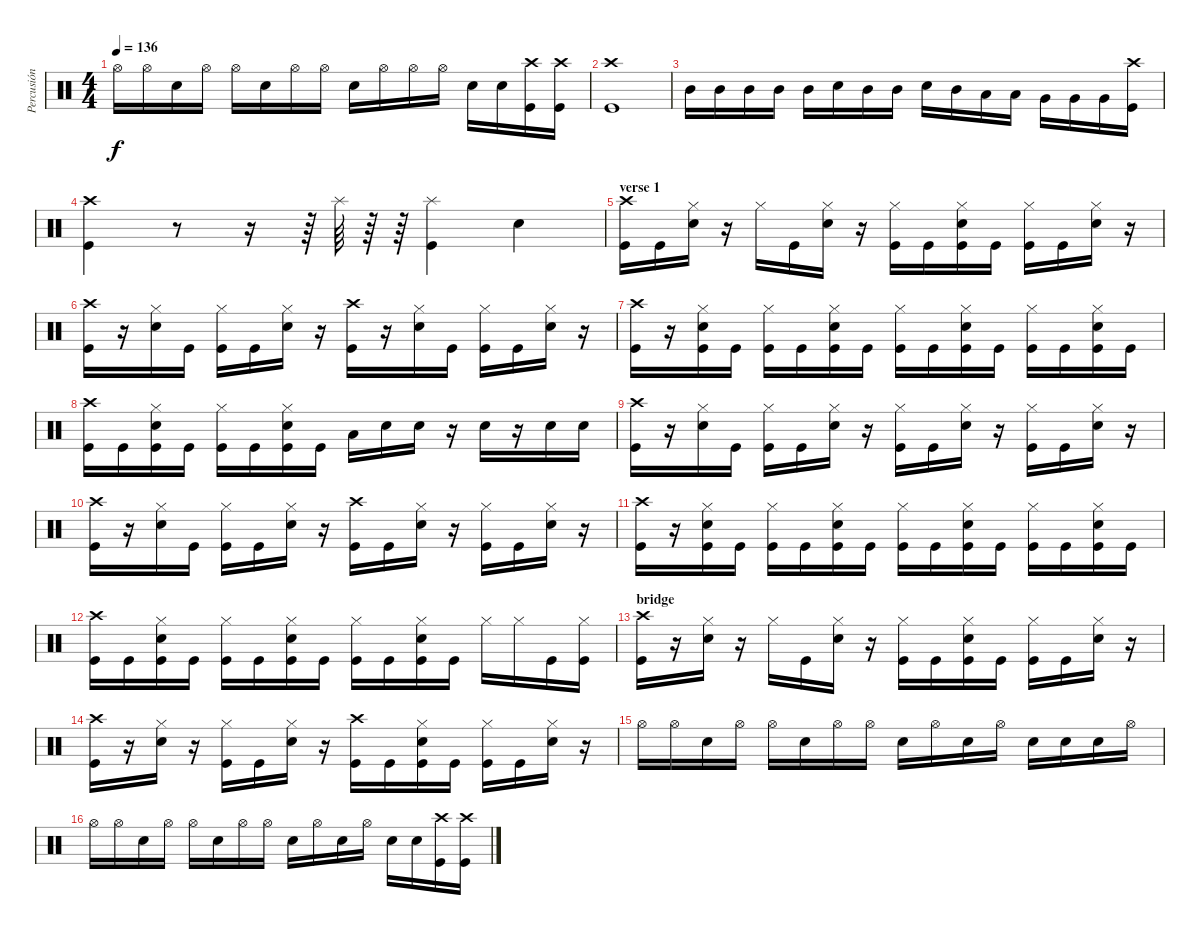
\track ("Percusión" "Percusión") {instrument percussion}
\staff {score}
\articulation defaults
\ts (4 4)
\tempo 136
\clef neutral
\ks c "Hi-Hat (open)".16{dy f} "Hi-Hat (open)".16 "Snare (hit) 2".16 "Hi-Hat (open)".16 "Hi-Hat (open)".16 "Snare (hit) 2".16 "Hi-Hat (open)".16 "Hi-Hat (open)".16 "Snare (hit) 2".16 "Hi-Hat (open)".16 "Hi-Hat (open)".16 "Hi-Hat (open)".16 "Snare (hit) 2".16 "Snare (hit) 2".16
("Crash high (hit)" "Kick (hit)").16 ("Crash high (hit)" "Kick (hit)").16 |
("Crash high (hit)" "Kick (hit)").1 |
"Mid Tom (hit)".16 "Mid Tom (hit)".16 "Mid Tom (hit)".16 "Mid Tom (hit)".16 "Mid Tom (hit)".16 "Snare (hit) 2".16 "Mid Tom (hit)".16 "Mid Tom (hit)".16 "Snare (hit) 2".16 "Mid Tom (hit)".16 "Low Tom (hit)".16 "Low Tom (hit)".16 "Very Low Tom (hit)".16 "Very Low Tom (hit)".16 "Very Low Tom (hit)".16 ("Crash high (hit)" "Kick (hit)").16 |
("Crash high (hit)" "Kick (hit)").4 r.8 r.16 r.64 "Splash (hit)".64 r.64 r.64 ("Splash (hit)" "Kick (hit)").4 "Snare (hit) 2".4 |
\section ("" "verse 1")
("Crash high (hit)" "Kick (hit)").16 "Kick (hit)".16 ("Hi-Hat (closed)" "Snare (hit) 2").16 r.16 "Hi-Hat (closed)".16 "Kick (hit)".16 ("Hi-Hat (closed)" "Snare (hit) 2").16 r.16 ("Hi-Hat (closed)" "Kick (hit)").16 "Kick (hit)".16 ("Hi-Hat (closed)" "Snare (hit) 2" "Kick (hit)").16 "Kick (hit)".16 ("Hi-Hat (closed)" "Kick (hit)").16 "Kick (hit)".16 ("Hi-Hat (closed)" "Snare (hit) 2").16 r.16 |
("Crash high (hit)" "Kick (hit)").16 r.16 ("Hi-Hat (closed)" "Snare (hit) 2").16 "Kick (hit)".16 ("Hi-Hat (closed)" "Kick (hit)").16 "Kick (hit)".16 ("Hi-Hat (closed)" "Snare (hit) 2").16 r.16 ("Crash high (hit)" "Kick (hit)").16 r.16 ("Hi-Hat (closed)" "Snare (hit) 2").16 "Kick (hit)".16 ("Hi-Hat (closed)" "Kick (hit)").16 "Kick (hit)".16 ("Hi-Hat (closed)" "Snare (hit) 2").16 r.16 |
("Crash high (hit)" "Kick (hit)").16 r.16 ("Hi-Hat (closed)" "Snare (hit) 2" "Kick (hit)").16 "Kick (hit)".16 ("Hi-Hat (closed)" "Kick (hit)").16 "Kick (hit)".16 ("Hi-Hat (closed)" "Snare (hit) 2" "Kick (hit)").16 "Kick (hit)".16 ("Hi-Hat (closed)" "Kick (hit)").16 "Kick (hit)".16 ("Hi-Hat (closed)" "Snare (hit) 2" "Kick (hit)").16 "Kick (hit)".16 ("Hi-Hat (closed)" "Kick (hit)").16 "Kick (hit)".16 ("Hi-Hat (closed)" "Snare (hit) 2" "Kick (hit)").16 "Kick (hit)".16 |
("Crash high (hit)" "Kick (hit)").16 "Kick (hit)".16 ("Hi-Hat (closed)" "Snare (hit) 2" "Kick (hit)").16 "Kick (hit)".16 ("Hi-Hat (closed)" "Kick (hit)").16 "Kick (hit)".16 ("Hi-Hat (closed)" "Snare (hit) 2" "Kick (hit)").16 "Kick (hit)".16 "Low Tom (hit)".16 "Snare (hit) 2".16 "Snare (hit) 2".16 r.16 "Snare (hit) 2".16 r.16 "Snare (hit) 2".16 "Snare (hit) 2".16 |
("Crash high (hit)" "Kick (hit)").16 r.16 ("Hi-Hat (closed)" "Snare (hit) 2").16 "Kick (hit)".16 ("Hi-Hat (closed)" "Kick (hit)").16 "Kick (hit)".16 ("Hi-Hat (closed)" "Snare (hit) 2").16 r.16 ("Hi-Hat (closed)" "Kick (hit)").16 "Kick (hit)".16 ("Hi-Hat (closed)" "Snare (hit) 2").16 r.16 ("Hi-Hat (closed)" "Kick (hit)").16 "Kick (hit)".16 ("Hi-Hat (closed)" "Snare (hit) 2").16 r.16 |
("Crash high (hit)" "Kick (hit)").16 r.16 ("Hi-Hat (closed)" "Snare (hit) 2").16 "Kick (hit)".16 ("Hi-Hat (closed)" "Kick (hit)").16 "Kick (hit)".16 ("Hi-Hat (closed)" "Snare (hit) 2").16 r.16 ("Crash high (hit)" "Kick (hit)").16 "Kick (hit)".16 ("Hi-Hat (closed)" "Snare (hit) 2").16 r.16 ("Hi-Hat (closed)" "Kick (hit)").16 "Kick (hit)".16 ("Hi-Hat (closed)" "Snare (hit) 2").16 r.16 |
("Crash high (hit)" "Kick (hit)").16 r.16 ("Hi-Hat (closed)" "Snare (hit) 2" "Kick (hit)").16 "Kick (hit)".16 ("Hi-Hat (closed)" "Kick (hit)").16 "Kick (hit)".16 ("Hi-Hat (closed)" "Snare (hit) 2" "Kick (hit)").16 "Kick (hit)".16 ("Hi-Hat (closed)" "Kick (hit)").16 "Kick (hit)".16 ("Hi-Hat (closed)" "Snare (hit) 2" "Kick (hit)").16 "Kick (hit)".16 ("Hi-Hat (closed)" "Kick (hit)").16 "Kick (hit)".16 ("Hi-Hat (closed)" "Snare (hit) 2" "Kick (hit)").16 "Kick (hit)".16 |
("Crash high (hit)" "Kick (hit)").16 "Kick (hit)".16 ("Hi-Hat (closed)" "Snare (hit) 2" "Kick (hit)").16 "Kick (hit)".16 ("Hi-Hat (closed)" "Kick (hit)").16 "Kick (hit)".16 ("Hi-Hat (closed)" "Snare (hit) 2" "Kick (hit)").16 "Kick (hit)".16 ("Hi-Hat (closed)" "Kick (hit)").16 "Kick (hit)".16 ("Hi-Hat (closed)" "Snare (hit) 2" "Kick (hit)").16 "Kick (hit)".16 "Hi-Hat (closed)".16 "Hi-Hat (closed)".16 "Kick (hit)".16 ("Hi-Hat (closed)" "Kick (hit)").16 |
\section ("" "bridge")
("Crash high (hit)" "Kick (hit)").16 r.16 ("Hi-Hat (closed)" "Snare (hit) 2").16 r.16 "Hi-Hat (closed)".16 "Kick (hit)".16 ("Hi-Hat (closed)" "Snare (hit) 2").16 r.16 ("Hi-Hat (closed)" "Kick (hit)").16 "Kick (hit)".16 ("Hi-Hat (closed)" "Snare (hit) 2" "Kick (hit)").16 "Kick (hit)".16 ("Hi-Hat (closed)" "Kick (hit)").16 "Kick (hit)".16 ("Hi-Hat (closed)" "Snare (hit) 2").16 r.16 |
("Crash high (hit)" "Kick (hit)").16 r.16 ("Hi-Hat (closed)" "Snare (hit) 2").16 r.16 ("Hi-Hat (closed)" "Kick (hit)").16 "Kick (hit)".16 ("Hi-Hat (closed)" "Snare (hit) 2").16 r.16 ("Crash high (hit)" "Kick (hit)").16 "Kick (hit)".16 ("Hi-Hat (closed)" "Snare (hit) 2" "Kick (hit)").16 "Kick (hit)".16 ("Hi-Hat (closed)" "Kick (hit)").16 "Kick (hit)".16 ("Hi-Hat (closed)" "Snare (hit) 2").16 r.16 |
"Hi-Hat (open)".16 "Hi-Hat (open)".16 "Snare (hit) 2".16 "Hi-Hat (open)".16 "Hi-Hat (open)".16 "Snare (hit) 2".16 "Hi-Hat (open)".16 "Hi-Hat (open)".16 "Snare (hit) 2".16 "Hi-Hat (open)".16 "Snare (hit) 2".16 "Hi-Hat (open)".16 "Snare (hit) 2".16 "Snare (hit) 2".16 "Snare (hit) 2".16 "Hi-Hat (open)".16 |
"Hi-Hat (open)".16 "Hi-Hat (open)".16 "Snare (hit) 2".16 "Hi-Hat (open)".16 "Hi-Hat (open)".16 "Snare (hit) 2".16 "Hi-Hat (open)".16 "Hi-Hat (open)".16 "Snare (hit) 2".16 "Hi-Hat (open)".16 "Snare (hit) 2".16 "Hi-Hat (open)".16 "Snare (hit) 2".16 "Snare (hit) 2".16 ("Crash high (hit)" "Kick (hit)").16 ("Crash high (hit)" "Kick (hit)").16
